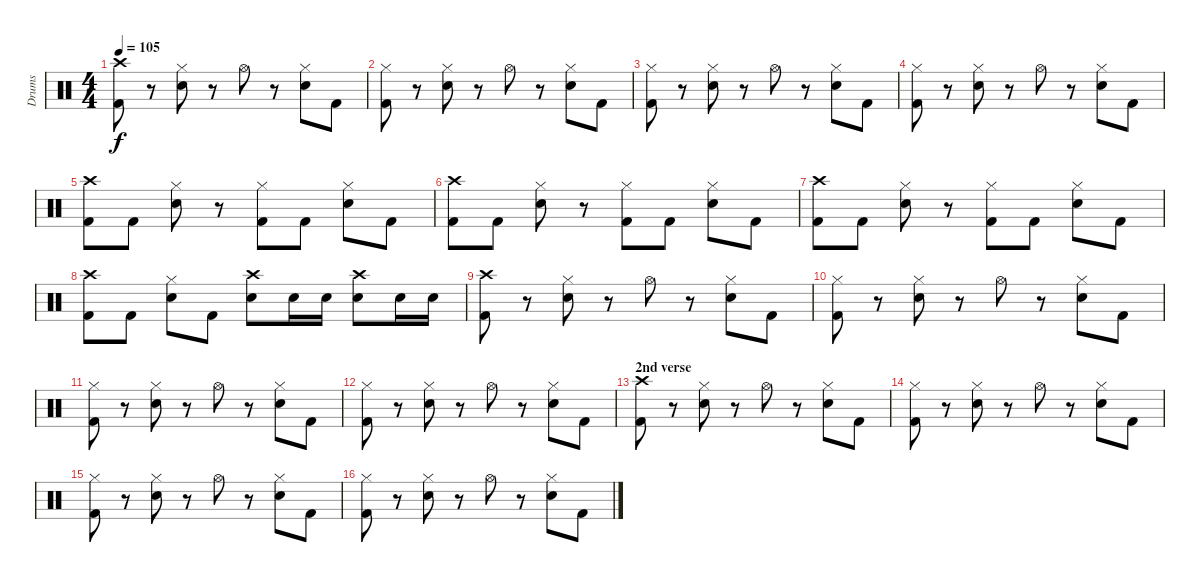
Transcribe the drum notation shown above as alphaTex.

\track ("Drums" "Drums") {instrument percussion}
\staff {score}
\articulation defaults
\ts (4 4)
\tempo 105
\clef neutral
\ks c
("Crash high (hit)" "Kick (hit) 2").8{dy f} r.8 ("Hi-Hat (closed)" "Electric Snare (hit)").8 r.8 "Hi-Hat (open)".8 r.8 ("Hi-Hat (closed)" "Electric Snare (hit)").8 "Kick (hit) 2".8 |
("Hi-Hat (closed)" "Kick (hit) 2").8 r.8 ("Hi-Hat (closed)" "Electric Snare (hit)").8 r.8 "Hi-Hat (open)".8 r.8 ("Hi-Hat (closed)" "Electric Snare (hit)").8 "Kick (hit) 2".8 |
("Hi-Hat (closed)" "Kick (hit) 2").8 r.8 ("Hi-Hat (closed)" "Electric Snare (hit)").8 r.8 "Hi-Hat (open)".8 r.8 ("Hi-Hat (closed)" "Electric Snare (hit)").8 "Kick (hit) 2".8 |
("Hi-Hat (closed)" "Kick (hit) 2").8 r.8 ("Hi-Hat (closed)" "Electric Snare (hit)").8 r.8 "Hi-Hat (open)".8 r.8 ("Hi-Hat (closed)" "Electric Snare (hit)").8 "Kick (hit) 2".8 |
("Crash high (hit)" "Kick (hit) 2").8 "Kick (hit) 2".8 ("Hi-Hat (closed)" "Electric Snare (hit)").8 r.8 ("Hi-Hat (closed)" "Kick (hit) 2").8 "Kick (hit) 2".8 ("Hi-Hat (closed)" "Electric Snare (hit)").8 "Kick (hit) 2".8 |
("Crash high (hit)" "Kick (hit) 2").8 "Kick (hit) 2".8 ("Hi-Hat (closed)" "Electric Snare (hit)").8 r.8 ("Hi-Hat (closed)" "Kick (hit) 2").8 "Kick (hit) 2".8 ("Hi-Hat (closed)" "Electric Snare (hit)").8 "Kick (hit) 2".8 |
("Crash high (hit)" "Kick (hit) 2").8 "Kick (hit) 2".8 ("Hi-Hat (closed)" "Electric Snare (hit)").8 r.8 ("Hi-Hat (closed)" "Kick (hit) 2").8 "Kick (hit) 2".8 ("Hi-Hat (closed)" "Electric Snare (hit)").8 "Kick (hit) 2".8 |
("Crash high (hit)" "Kick (hit) 2").8 "Kick (hit) 2".8 ("Hi-Hat (closed)" "Electric Snare (hit)").8 "Kick (hit) 2".8 ("Crash high (hit)" "Electric Snare (hit)").8 "Electric Snare (hit)".16 "Electric Snare (hit)".16 ("Crash high (hit)" "Electric Snare (hit)").8 "Electric Snare (hit)".16 "Electric Snare (hit)".16 |
("Crash high (hit)" "Kick (hit) 2").8 r.8 ("Hi-Hat (closed)" "Electric Snare (hit)").8 r.8 "Hi-Hat (open)".8 r.8 ("Hi-Hat (closed)" "Electric Snare (hit)").8 "Kick (hit) 2".8 |
("Hi-Hat (closed)" "Kick (hit) 2").8 r.8 ("Hi-Hat (closed)" "Electric Snare (hit)").8 r.8 "Hi-Hat (open)".8 r.8 ("Hi-Hat (closed)" "Electric Snare (hit)").8 "Kick (hit) 2".8 |
("Hi-Hat (closed)" "Kick (hit) 2").8 r.8 ("Hi-Hat (closed)" "Electric Snare (hit)").8 r.8 "Hi-Hat (open)".8 r.8 ("Hi-Hat (closed)" "Electric Snare (hit)").8 "Kick (hit) 2".8 |
("Hi-Hat (closed)" "Kick (hit) 2").8 r.8 ("Hi-Hat (closed)" "Electric Snare (hit)").8 r.8 "Hi-Hat (open)".8 r.8 ("Hi-Hat (closed)" "Electric Snare (hit)").8 "Kick (hit) 2".8 |
\section ("" "2nd verse")
("Crash high (hit)" "Kick (hit) 2").8 r.8 ("Hi-Hat (closed)" "Electric Snare (hit)").8 r.8 "Hi-Hat (open)".8 r.8 ("Hi-Hat (closed)" "Electric Snare (hit)").8 "Kick (hit) 2".8 |
("Hi-Hat (closed)" "Kick (hit) 2").8 r.8 ("Hi-Hat (closed)" "Electric Snare (hit)").8 r.8 "Hi-Hat (open)".8 r.8 ("Hi-Hat (closed)" "Electric Snare (hit)").8 "Kick (hit) 2".8 |
("Hi-Hat (closed)" "Kick (hit) 2").8 r.8 ("Hi-Hat (closed)" "Electric Snare (hit)").8 r.8 "Hi-Hat (open)".8 r.8 ("Hi-Hat (closed)" "Electric Snare (hit)").8 "Kick (hit) 2".8 |
("Hi-Hat (closed)" "Kick (hit) 2").8 r.8 ("Hi-Hat (closed)" "Electric Snare (hit)").8 r.8 "Hi-Hat (open)".8 r.8 ("Hi-Hat (closed)" "Electric Snare (hit)").8 "Kick (hit) 2".8
